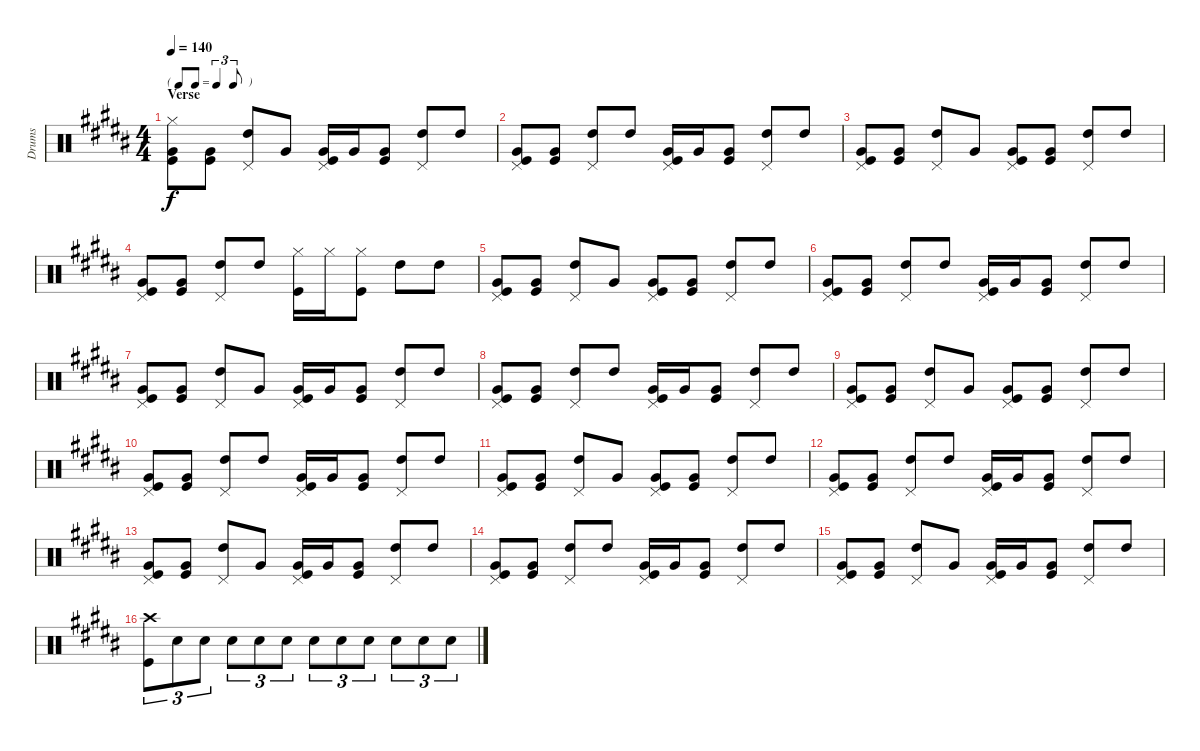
\track ("Drums" "Drums") {instrument percussion}
\staff {score}
\articulation defaults
\ts (4 4)
\tf triplet8th
\section ("" "Verse")
\tempo 140
\clef neutral
\ks b
("Kick (hit)" "Very Low Tom (hit)" "Hi-Hat (closed)").8{dy f} ("Kick (hit)" "Very Low Tom (hit)").8 ("High Tom (hit)" "Pedal Hi-Hat (hit)").8 "Very Low Tom (hit)".8 ("Very Low Tom (hit)" "Kick (hit)" "Pedal Hi-Hat (hit)").16 "Very Low Tom (hit)".16 ("Very Low Tom (hit)" "Kick (hit)").8 ("High Tom (hit)" "Pedal Hi-Hat (hit)").8 "High Tom (hit)".8 |
("Kick (hit)" "Very Low Tom (hit)" "Pedal Hi-Hat (hit)").8 ("Kick (hit)" "Very Low Tom (hit)").8 ("High Tom (hit)" "Pedal Hi-Hat (hit)").8 "High Tom (hit)".8 ("Very Low Tom (hit)" "Kick (hit)" "Pedal Hi-Hat (hit)").16 "Very Low Tom (hit)".16 ("Very Low Tom (hit)" "Kick (hit)").8 ("High Tom (hit)" "Pedal Hi-Hat (hit)").8 "High Tom (hit)".8 |
("Kick (hit)" "Very Low Tom (hit)" "Pedal Hi-Hat (hit)").8 ("Kick (hit)" "Very Low Tom (hit)").8 ("High Tom (hit)" "Pedal Hi-Hat (hit)").8 "Very Low Tom (hit)".8 ("Very Low Tom (hit)" "Kick (hit)" "Pedal Hi-Hat (hit)").8 ("Very Low Tom (hit)" "Kick (hit)").8 ("High Tom (hit)" "Pedal Hi-Hat (hit)").8 "High Tom (hit)".8 |
("Kick (hit)" "Very Low Tom (hit)" "Pedal Hi-Hat (hit)").8 ("Kick (hit)" "Very Low Tom (hit)").8 ("High Tom (hit)" "Pedal Hi-Hat (hit)").8 "High Tom (hit)".8 ("Hi-Hat (closed)" "Kick (hit)").16 "Hi-Hat (closed)".16 ("Hi-Hat (closed)" "Kick (hit)").8 "High Tom (hit)".8 "High Tom (hit)".8 |
("Kick (hit)" "Very Low Tom (hit)" "Pedal Hi-Hat (hit)").8 ("Kick (hit)" "Very Low Tom (hit)").8 ("High Tom (hit)" "Pedal Hi-Hat (hit)").8 "Very Low Tom (hit)".8 ("Very Low Tom (hit)" "Kick (hit)" "Pedal Hi-Hat (hit)").8 ("Very Low Tom (hit)" "Kick (hit)").8 ("High Tom (hit)" "Pedal Hi-Hat (hit)").8 "High Tom (hit)".8 |
("Kick (hit)" "Very Low Tom (hit)" "Pedal Hi-Hat (hit)").8 ("Kick (hit)" "Very Low Tom (hit)").8 ("High Tom (hit)" "Pedal Hi-Hat (hit)").8 "High Tom (hit)".8 ("Very Low Tom (hit)" "Kick (hit)" "Pedal Hi-Hat (hit)").16 "Very Low Tom (hit)".16 ("Very Low Tom (hit)" "Kick (hit)").8 ("High Tom (hit)" "Pedal Hi-Hat (hit)").8 "High Tom (hit)".8 |
("Kick (hit)" "Very Low Tom (hit)" "Pedal Hi-Hat (hit)").8 ("Kick (hit)" "Very Low Tom (hit)").8 ("High Tom (hit)" "Pedal Hi-Hat (hit)").8 "Very Low Tom (hit)".8 ("Very Low Tom (hit)" "Kick (hit)" "Pedal Hi-Hat (hit)").16 "Very Low Tom (hit)".16 ("Very Low Tom (hit)" "Kick (hit)").8 ("High Tom (hit)" "Pedal Hi-Hat (hit)").8 "High Tom (hit)".8 |
("Kick (hit)" "Very Low Tom (hit)" "Pedal Hi-Hat (hit)").8 ("Kick (hit)" "Very Low Tom (hit)").8 ("High Tom (hit)" "Pedal Hi-Hat (hit)").8 "High Tom (hit)".8 ("Very Low Tom (hit)" "Kick (hit)" "Pedal Hi-Hat (hit)").16 "Very Low Tom (hit)".16 ("Very Low Tom (hit)" "Kick (hit)").8 ("High Tom (hit)" "Pedal Hi-Hat (hit)").8 "High Tom (hit)".8 |
("Kick (hit)" "Very Low Tom (hit)" "Pedal Hi-Hat (hit)").8 ("Kick (hit)" "Very Low Tom (hit)").8 ("High Tom (hit)" "Pedal Hi-Hat (hit)").8 "Very Low Tom (hit)".8 ("Very Low Tom (hit)" "Kick (hit)" "Pedal Hi-Hat (hit)").8 ("Very Low Tom (hit)" "Kick (hit)").8 ("High Tom (hit)" "Pedal Hi-Hat (hit)").8 "High Tom (hit)".8 |
("Kick (hit)" "Very Low Tom (hit)" "Pedal Hi-Hat (hit)").8 ("Kick (hit)" "Very Low Tom (hit)").8 ("High Tom (hit)" "Pedal Hi-Hat (hit)").8 "High Tom (hit)".8 ("Very Low Tom (hit)" "Kick (hit)" "Pedal Hi-Hat (hit)").16 "Very Low Tom (hit)".16 ("Very Low Tom (hit)" "Kick (hit)").8 ("High Tom (hit)" "Pedal Hi-Hat (hit)").8 "High Tom (hit)".8 |
("Kick (hit)" "Very Low Tom (hit)" "Pedal Hi-Hat (hit)").8 ("Kick (hit)" "Very Low Tom (hit)").8 ("High Tom (hit)" "Pedal Hi-Hat (hit)").8 "Very Low Tom (hit)".8 ("Very Low Tom (hit)" "Kick (hit)" "Pedal Hi-Hat (hit)").8 ("Very Low Tom (hit)" "Kick (hit)").8 ("High Tom (hit)" "Pedal Hi-Hat (hit)").8 "High Tom (hit)".8 |
("Kick (hit)" "Very Low Tom (hit)" "Pedal Hi-Hat (hit)").8 ("Kick (hit)" "Very Low Tom (hit)").8 ("High Tom (hit)" "Pedal Hi-Hat (hit)").8 "High Tom (hit)".8 ("Very Low Tom (hit)" "Kick (hit)" "Pedal Hi-Hat (hit)").16 "Very Low Tom (hit)".16 ("Very Low Tom (hit)" "Kick (hit)").8 ("High Tom (hit)" "Pedal Hi-Hat (hit)").8 "High Tom (hit)".8 |
("Kick (hit)" "Very Low Tom (hit)" "Pedal Hi-Hat (hit)").8 ("Kick (hit)" "Very Low Tom (hit)").8 ("High Tom (hit)" "Pedal Hi-Hat (hit)").8 "Very Low Tom (hit)".8 ("Very Low Tom (hit)" "Kick (hit)" "Pedal Hi-Hat (hit)").16 "Very Low Tom (hit)".16 ("Very Low Tom (hit)" "Kick (hit)").8 ("High Tom (hit)" "Pedal Hi-Hat (hit)").8 "High Tom (hit)".8 |
("Kick (hit)" "Very Low Tom (hit)" "Pedal Hi-Hat (hit)").8 ("Kick (hit)" "Very Low Tom (hit)").8 ("High Tom (hit)" "Pedal Hi-Hat (hit)").8 "High Tom (hit)".8 ("Very Low Tom (hit)" "Kick (hit)" "Pedal Hi-Hat (hit)").16 "Very Low Tom (hit)".16 ("Very Low Tom (hit)" "Kick (hit)").8 ("High Tom (hit)" "Pedal Hi-Hat (hit)").8 "High Tom (hit)".8 |
("Kick (hit)" "Very Low Tom (hit)" "Pedal Hi-Hat (hit)").8 ("Kick (hit)" "Very Low Tom (hit)").8 ("High Tom (hit)" "Pedal Hi-Hat (hit)").8 "Very Low Tom (hit)".8 ("Very Low Tom (hit)" "Kick (hit)" "Pedal Hi-Hat (hit)").16 "Very Low Tom (hit)".16 ("Very Low Tom (hit)" "Kick (hit)").8 ("High Tom (hit)" "Pedal Hi-Hat (hit)").8 "High Tom (hit)".8 |
("Kick (hit)" "Crash high (hit)").8{tu (3 2)} "Snare (hit) 2".8{tu (3 2)} "Snare (hit) 2".8{tu (3 2)} "Snare (hit) 2".8{tu (3 2)} "Snare (hit) 2".8{tu (3 2)} "Snare (hit) 2".8{tu (3 2)} "Snare (hit) 2".8{tu (3 2)} "Snare (hit) 2".8{tu (3 2)} "Snare (hit) 2".8{tu (3 2)} "Snare (hit) 2".8{tu (3 2)} "Snare (hit) 2".8{tu (3 2)} "Snare (hit) 2".8{tu (3 2)}
